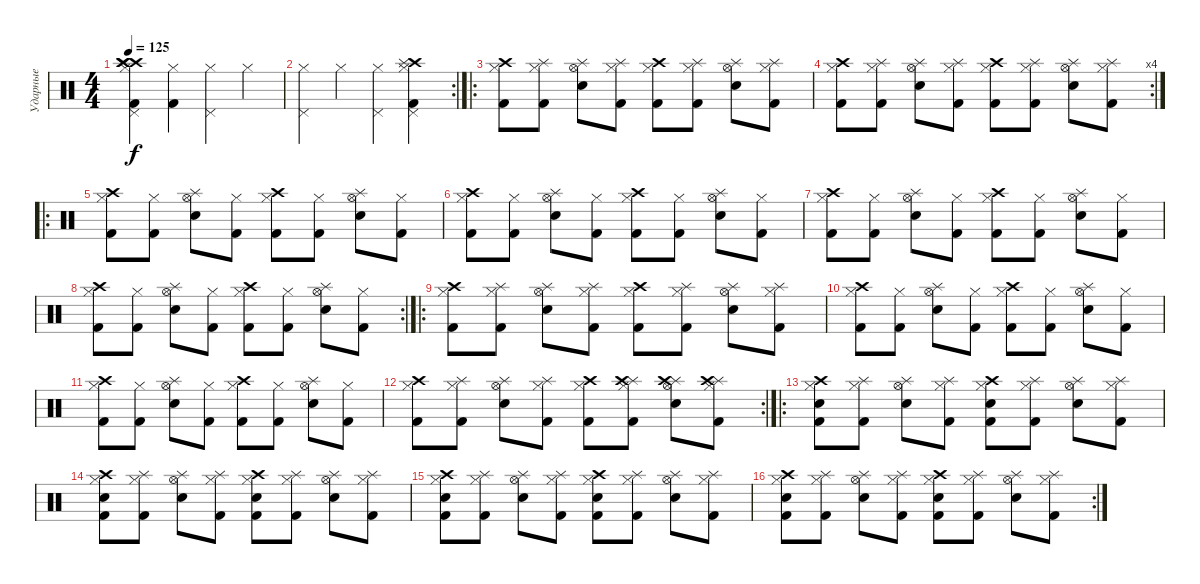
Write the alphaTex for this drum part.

\track ("Ударные" "Ударные") {instrument percussion}
\staff {score}
\articulation defaults
\ts (4 4)
\tempo 125
\clef neutral
\ks c
("Hi-Hat (closed)" "Pedal Hi-Hat (hit)" "Crash high (hit)" "Kick (hit) 2" "Crash high (hit)" "Crash high (hit)").4{dy f} ("Hi-Hat (closed)" "Kick (hit) 2").4 ("Hi-Hat (closed)" "Pedal Hi-Hat (hit)").4 "Hi-Hat (closed)".4 |
\rc 2
("Hi-Hat (closed)" "Pedal Hi-Hat (hit)").4 "Hi-Hat (closed)".4 ("Hi-Hat (closed)" "Pedal Hi-Hat (hit)").4 ("Hi-Hat (closed)" "Pedal Hi-Hat (hit)" "Crash high (hit)" "Kick (hit) 2" "Splash (hit)").4 |
\ro
("Kick (hit) 2" "Hi-Hat (closed)" "Crash high (hit)").8 ("Kick (hit) 2" "Hi-Hat (closed)" "Splash (hit)").8 ("Electric Snare (hit)" "Hi-Hat (open)" "Splash (hit)").8 ("Kick (hit) 2" "Hi-Hat (closed)" "Splash (hit)").8 ("Kick (hit) 2" "Hi-Hat (closed)" "Crash high (hit)").8 ("Kick (hit) 2" "Hi-Hat (closed)" "Splash (hit)").8 ("Electric Snare (hit)" "Hi-Hat (open)" "Splash (hit)").8 ("Kick (hit) 2" "Hi-Hat (closed)" "Splash (hit)").8 |
\rc 4
("Kick (hit) 2" "Hi-Hat (closed)" "Crash high (hit)").8 ("Kick (hit) 2" "Hi-Hat (closed)" "Splash (hit)").8 ("Electric Snare (hit)" "Hi-Hat (open)" "Splash (hit)").8 ("Kick (hit) 2" "Hi-Hat (closed)" "Splash (hit)").8 ("Kick (hit) 2" "Hi-Hat (closed)" "Crash high (hit)").8 ("Kick (hit) 2" "Hi-Hat (closed)" "Splash (hit)").8 ("Electric Snare (hit)" "Hi-Hat (open)" "Splash (hit)").8 ("Kick (hit) 2" "Hi-Hat (closed)" "Splash (hit)").8 |
\ro
("Kick (hit) 2" "Hi-Hat (closed)" "Crash high (hit)").8 ("Kick (hit) 2" "Hi-Hat (closed)").8 ("Electric Snare (hit)" "Hi-Hat (open)" "Splash (hit)").8 ("Kick (hit) 2" "Hi-Hat (closed)").8 ("Kick (hit) 2" "Hi-Hat (closed)" "Crash high (hit)").8 ("Kick (hit) 2" "Hi-Hat (closed)").8 ("Electric Snare (hit)" "Hi-Hat (open)" "Splash (hit)").8 ("Kick (hit) 2" "Hi-Hat (closed)").8 |
("Kick (hit) 2" "Hi-Hat (closed)" "Crash high (hit)").8 ("Kick (hit) 2" "Hi-Hat (closed)").8 ("Electric Snare (hit)" "Hi-Hat (open)" "Splash (hit)").8 ("Kick (hit) 2" "Hi-Hat (closed)").8 ("Kick (hit) 2" "Hi-Hat (closed)" "Crash high (hit)").8 ("Kick (hit) 2" "Hi-Hat (closed)").8 ("Electric Snare (hit)" "Hi-Hat (open)" "Splash (hit)").8 ("Kick (hit) 2" "Hi-Hat (closed)").8 |
("Kick (hit) 2" "Hi-Hat (closed)" "Crash high (hit)").8 ("Kick (hit) 2" "Hi-Hat (closed)").8 ("Electric Snare (hit)" "Hi-Hat (open)" "Splash (hit)").8 ("Kick (hit) 2" "Hi-Hat (closed)").8 ("Kick (hit) 2" "Hi-Hat (closed)" "Crash high (hit)").8 ("Kick (hit) 2" "Hi-Hat (closed)").8 ("Electric Snare (hit)" "Hi-Hat (open)" "Splash (hit)").8 ("Kick (hit) 2" "Hi-Hat (closed)").8 |
\rc 2
("Kick (hit) 2" "Hi-Hat (closed)" "Crash high (hit)").8 ("Kick (hit) 2" "Hi-Hat (closed)").8 ("Electric Snare (hit)" "Hi-Hat (open)" "Splash (hit)").8 ("Kick (hit) 2" "Hi-Hat (closed)").8 ("Kick (hit) 2" "Hi-Hat (closed)" "Crash high (hit)").8 ("Kick (hit) 2" "Hi-Hat (closed)").8 ("Electric Snare (hit)" "Hi-Hat (open)" "Splash (hit)").8 ("Kick (hit) 2" "Hi-Hat (closed)").8 |
\ro
("Kick (hit) 2" "Hi-Hat (closed)" "Crash high (hit)").8 ("Kick (hit) 2" "Hi-Hat (closed)" "Splash (hit)").8 ("Electric Snare (hit)" "Hi-Hat (open)" "Splash (hit)").8 ("Kick (hit) 2" "Hi-Hat (closed)" "Splash (hit)").8 ("Kick (hit) 2" "Hi-Hat (closed)" "Crash high (hit)").8 ("Kick (hit) 2" "Hi-Hat (closed)" "Splash (hit)").8 ("Electric Snare (hit)" "Hi-Hat (open)" "Splash (hit)").8 ("Kick (hit) 2" "Hi-Hat (closed)" "Splash (hit)").8 |
("Kick (hit) 2" "Hi-Hat (closed)" "Crash high (hit)").8 ("Kick (hit) 2" "Hi-Hat (closed)").8 ("Electric Snare (hit)" "Hi-Hat (open)" "Splash (hit)").8 ("Kick (hit) 2" "Hi-Hat (closed)").8 ("Kick (hit) 2" "Hi-Hat (closed)" "Crash high (hit)").8 ("Kick (hit) 2" "Hi-Hat (closed)").8 ("Electric Snare (hit)" "Hi-Hat (open)" "Splash (hit)").8 ("Kick (hit) 2" "Hi-Hat (closed)").8 |
("Kick (hit) 2" "Hi-Hat (closed)" "Crash high (hit)").8 ("Kick (hit) 2" "Hi-Hat (closed)").8 ("Electric Snare (hit)" "Hi-Hat (open)" "Splash (hit)").8 ("Kick (hit) 2" "Hi-Hat (closed)").8 ("Kick (hit) 2" "Hi-Hat (closed)" "Crash high (hit)").8 ("Kick (hit) 2" "Hi-Hat (closed)").8 ("Electric Snare (hit)" "Hi-Hat (open)" "Splash (hit)").8 ("Kick (hit) 2" "Hi-Hat (closed)").8 |
\rc 2
("Kick (hit) 2" "Hi-Hat (closed)" "Crash high (hit)").8 ("Kick (hit) 2" "Hi-Hat (closed)" "Splash (hit)").8 ("Electric Snare (hit)" "Hi-Hat (open)" "Splash (hit)").8 ("Kick (hit) 2" "Hi-Hat (closed)" "Splash (hit)").8 ("Kick (hit) 2" "Hi-Hat (closed)" "Crash high (hit)").8 ("Kick (hit) 2" "Hi-Hat (closed)" "Splash (hit)" "Crash high (hit)").8 ("Electric Snare (hit)" "Hi-Hat (open)" "Splash (hit)" "Crash high (hit)").8 ("Kick (hit) 2" "Hi-Hat (closed)" "Splash (hit)" "Crash high (hit)").8 |
\ro
("Kick (hit) 2" "Hi-Hat (closed)" "Snare (hit) 2" "Crash high (hit)").8 ("Kick (hit) 2" "Hi-Hat (closed)" "Splash (hit)").8 ("Electric Snare (hit)" "Hi-Hat (open)" "Splash (hit)").8 ("Kick (hit) 2" "Hi-Hat (closed)" "Splash (hit)").8 ("Kick (hit) 2" "Hi-Hat (closed)" "Snare (hit) 2" "Crash high (hit)").8 ("Kick (hit) 2" "Hi-Hat (closed)" "Splash (hit)").8 ("Electric Snare (hit)" "Hi-Hat (open)" "Splash (hit)").8 ("Kick (hit) 2" "Hi-Hat (closed)" "Splash (hit)").8 |
("Kick (hit) 2" "Hi-Hat (closed)" "Snare (hit) 2" "Crash high (hit)").8 ("Kick (hit) 2" "Hi-Hat (closed)" "Splash (hit)").8 ("Electric Snare (hit)" "Hi-Hat (open)" "Splash (hit)").8 ("Kick (hit) 2" "Hi-Hat (closed)" "Splash (hit)").8 ("Kick (hit) 2" "Hi-Hat (closed)" "Snare (hit) 2" "Crash high (hit)").8 ("Kick (hit) 2" "Hi-Hat (closed)" "Splash (hit)").8 ("Electric Snare (hit)" "Hi-Hat (open)" "Splash (hit)").8 ("Kick (hit) 2" "Hi-Hat (closed)" "Splash (hit)").8 |
("Kick (hit) 2" "Hi-Hat (closed)" "Snare (hit) 2" "Crash high (hit)").8 ("Kick (hit) 2" "Hi-Hat (closed)" "Splash (hit)").8 ("Electric Snare (hit)" "Hi-Hat (open)" "Splash (hit)").8 ("Kick (hit) 2" "Hi-Hat (closed)" "Splash (hit)").8 ("Kick (hit) 2" "Hi-Hat (closed)" "Snare (hit) 2" "Crash high (hit)").8 ("Kick (hit) 2" "Hi-Hat (closed)" "Splash (hit)").8 ("Electric Snare (hit)" "Hi-Hat (open)" "Splash (hit)").8 ("Kick (hit) 2" "Hi-Hat (closed)" "Splash (hit)").8 |
\rc 2
("Kick (hit) 2" "Hi-Hat (closed)" "Snare (hit) 2" "Crash high (hit)").8 ("Kick (hit) 2" "Hi-Hat (closed)" "Splash (hit)").8 ("Electric Snare (hit)" "Hi-Hat (open)" "Splash (hit)").8 ("Kick (hit) 2" "Hi-Hat (closed)" "Splash (hit)").8 ("Kick (hit) 2" "Hi-Hat (closed)" "Snare (hit) 2" "Crash high (hit)").8 ("Kick (hit) 2" "Hi-Hat (closed)" "Splash (hit)").8 ("Electric Snare (hit)" "Hi-Hat (open)" "Splash (hit)").8 ("Kick (hit) 2" "Hi-Hat (closed)" "Splash (hit)").8
